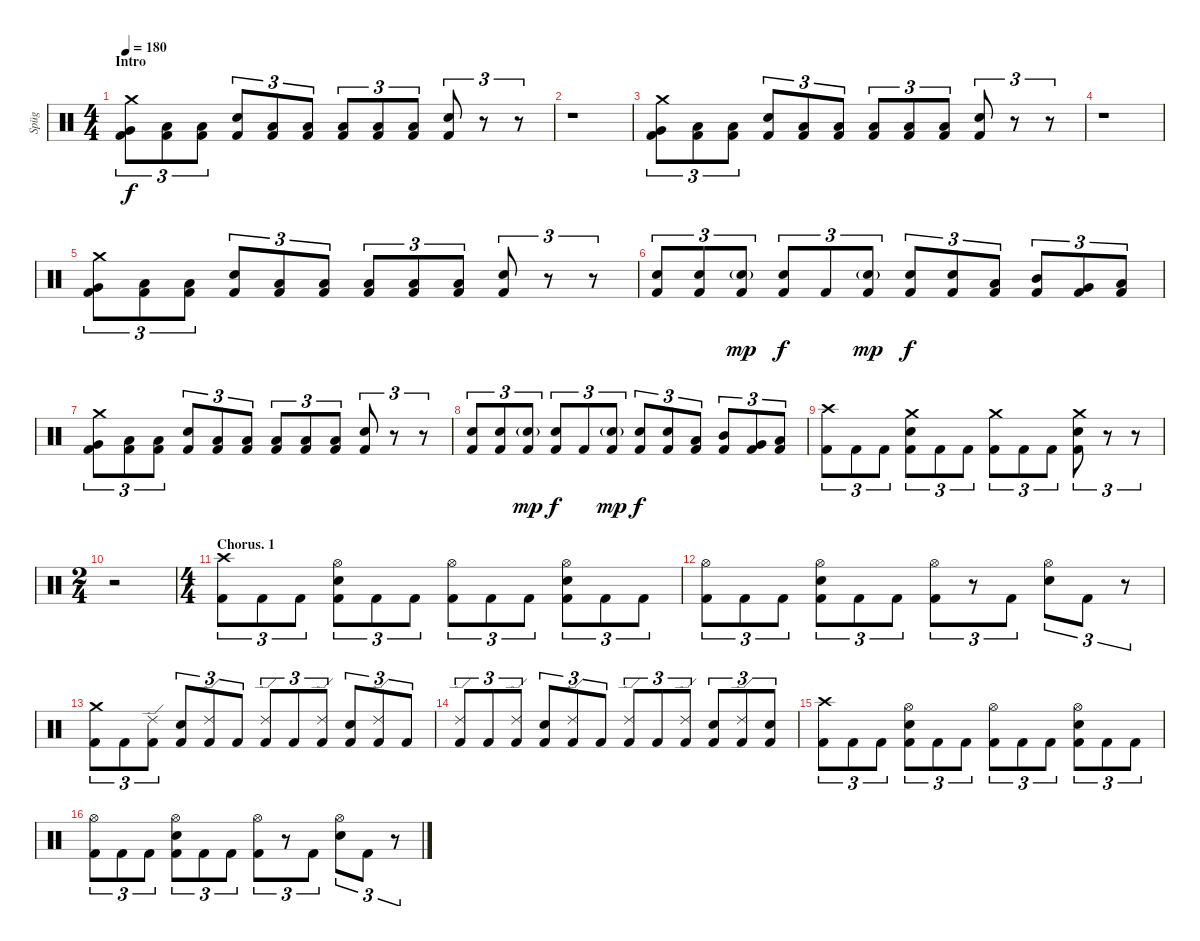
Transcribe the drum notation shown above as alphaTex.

\track ("Spüg" "Spüg") {instrument percussion}
\staff {score}
\articulation defaults
\ts (4 4)
\section ("" "Intro")
\tempo 180
\clef neutral
\ks c
("Crash medium (hit)" "Very Low Tom (hit)" "Kick (hit) 2").8{tu (3 2) dy f} ("Low Floor Tom (hit)" "Kick (hit) 2").8{tu (3 2)} ("Low Floor Tom (hit)" "Kick (hit) 2").8{tu (3 2)} ("Electric Snare (hit)" "Kick (hit) 2").8{tu (3 2)} ("Low Floor Tom (hit)" "Kick (hit) 2").8{tu (3 2)} ("Low Floor Tom (hit)" "Kick (hit) 2").8{tu (3 2)} ("Low Floor Tom (hit)" "Kick (hit) 2").8{tu (3 2)} ("Low Floor Tom (hit)" "Kick (hit) 2").8{tu (3 2)} ("Low Floor Tom (hit)" "Kick (hit) 2").8{tu (3 2)} ("Electric Snare (hit)" "Kick (hit) 2").8{tu (3 2)} r.8{tu (3 2)} r.8{tu (3 2)} |
r.1 |
("Crash medium (hit)" "Very Low Tom (hit)" "Kick (hit) 2").8{tu (3 2)} ("Low Floor Tom (hit)" "Kick (hit) 2").8{tu (3 2)} ("Low Floor Tom (hit)" "Kick (hit) 2").8{tu (3 2)} ("Electric Snare (hit)" "Kick (hit) 2").8{tu (3 2)} ("Low Floor Tom (hit)" "Kick (hit) 2").8{tu (3 2)} ("Low Floor Tom (hit)" "Kick (hit) 2").8{tu (3 2)} ("Low Floor Tom (hit)" "Kick (hit) 2").8{tu (3 2)} ("Low Floor Tom (hit)" "Kick (hit) 2").8{tu (3 2)} ("Low Floor Tom (hit)" "Kick (hit) 2").8{tu (3 2)} ("Electric Snare (hit)" "Kick (hit) 2").8{tu (3 2)} r.8{tu (3 2)} r.8{tu (3 2)} |
r.1 |
("Crash medium (hit)" "Very Low Tom (hit)" "Kick (hit) 2").8{tu (3 2)} ("Low Floor Tom (hit)" "Kick (hit) 2").8{tu (3 2)} ("Low Floor Tom (hit)" "Kick (hit) 2").8{tu (3 2)} ("Electric Snare (hit)" "Kick (hit) 2").8{tu (3 2)} ("Low Floor Tom (hit)" "Kick (hit) 2").8{tu (3 2)} ("Low Floor Tom (hit)" "Kick (hit) 2").8{tu (3 2)} ("Low Floor Tom (hit)" "Kick (hit) 2").8{tu (3 2)} ("Low Floor Tom (hit)" "Kick (hit) 2").8{tu (3 2)} ("Low Floor Tom (hit)" "Kick (hit) 2").8{tu (3 2)} ("Electric Snare (hit)" "Kick (hit) 2").8{tu (3 2)} r.8{tu (3 2)} r.8{tu (3 2)} |
("Electric Snare (hit)" "Kick (hit) 2").8{tu (3 2)} ("Electric Snare (hit)" "Kick (hit) 2").8{tu (3 2)} ("Electric Snare (hit)"{g} "Kick (hit) 2").8{tu (3 2) dy mp} ("Electric Snare (hit)" "Kick (hit) 2").8{tu (3 2) dy f} "Kick (hit) 2".8{tu (3 2)} ("Electric Snare (hit)"{g} "Kick (hit) 2").8{tu (3 2) dy mp} ("Electric Snare (hit)" "Kick (hit) 2").8{tu (3 2) dy f} ("Electric Snare (hit)" "Kick (hit) 2").8{tu (3 2)} ("Low Tom (hit)" "Kick (hit) 2").8{tu (3 2)} ("Mid Tom (hit)" "Kick (hit) 2").8{tu (3 2)} ("Very Low Tom (hit)" "Kick (hit) 2").8{tu (3 2)} ("Low Floor Tom (hit)" "Kick (hit) 2").8{tu (3 2)} |
("Crash medium (hit)" "Very Low Tom (hit)" "Kick (hit) 2").8{tu (3 2)} ("Low Floor Tom (hit)" "Kick (hit) 2").8{tu (3 2)} ("Low Floor Tom (hit)" "Kick (hit) 2").8{tu (3 2)} ("Electric Snare (hit)" "Kick (hit) 2").8{tu (3 2)} ("Low Floor Tom (hit)" "Kick (hit) 2").8{tu (3 2)} ("Low Floor Tom (hit)" "Kick (hit) 2").8{tu (3 2)} ("Low Floor Tom (hit)" "Kick (hit) 2").8{tu (3 2)} ("Low Floor Tom (hit)" "Kick (hit) 2").8{tu (3 2)} ("Low Floor Tom (hit)" "Kick (hit) 2").8{tu (3 2)} ("Electric Snare (hit)" "Kick (hit) 2").8{tu (3 2)} r.8{tu (3 2)} r.8{tu (3 2)} |
("Electric Snare (hit)" "Kick (hit) 2").8{tu (3 2)} ("Electric Snare (hit)" "Kick (hit) 2").8{tu (3 2)} ("Electric Snare (hit)"{g} "Kick (hit) 2").8{tu (3 2) dy mp} ("Electric Snare (hit)" "Kick (hit) 2").8{tu (3 2) dy f} "Kick (hit) 2".8{tu (3 2)} ("Electric Snare (hit)"{g} "Kick (hit) 2").8{tu (3 2) dy mp} ("Electric Snare (hit)" "Kick (hit) 2").8{tu (3 2) dy f} ("Electric Snare (hit)" "Kick (hit) 2").8{tu (3 2)} ("Low Tom (hit)" "Kick (hit) 2").8{tu (3 2)} ("Mid Tom (hit)" "Kick (hit) 2").8{tu (3 2)} ("Very Low Tom (hit)" "Kick (hit) 2").8{tu (3 2)} ("Low Floor Tom (hit)" "Kick (hit) 2").8{tu (3 2)} |
("Crash high (hit)" "Kick (hit) 2").8{tu (3 2)} "Kick (hit) 2".8{tu (3 2)} "Kick (hit) 2".8{tu (3 2)} ("Crash medium (hit)" "Electric Snare (hit)" "Kick (hit) 2").8{tu (3 2)} "Kick (hit) 2".8{tu (3 2)} "Kick (hit) 2".8{tu (3 2)} ("Crash medium (hit)" "Kick (hit) 2").8{tu (3 2)} "Kick (hit) 2".8{tu (3 2)} "Kick (hit) 2".8{tu (3 2)} ("Crash medium (hit)" "Electric Snare (hit)" "Kick (hit) 2").8{tu (3 2)} r.8{tu (3 2)} r.8{tu (3 2)} |
\ts (2 4)
r.2 |
\ts (4 4)
\section ("" "Chorus. 1")
("Crash high (hit)" "Kick (hit) 2").8{tu (3 2)} "Kick (hit) 2".8{tu (3 2)} "Kick (hit) 2".8{tu (3 2)} ("Hi-Hat (open)" "Electric Snare (hit)" "Kick (hit) 2").8{tu (3 2)} "Kick (hit) 2".8{tu (3 2)} "Kick (hit) 2".8{tu (3 2)} ("Hi-Hat (open)" "Kick (hit) 2").8{tu (3 2)} "Kick (hit) 2".8{tu (3 2)} "Kick (hit) 2".8{tu (3 2)} ("Hi-Hat (open)" "Electric Snare (hit)" "Kick (hit) 2").8{tu (3 2)} "Kick (hit) 2".8{tu (3 2)} "Kick (hit) 2".8{tu (3 2)} |
("Hi-Hat (open)" "Kick (hit) 2").8{tu (3 2)} "Kick (hit) 2".8{tu (3 2)} "Kick (hit) 2".8{tu (3 2)} ("Hi-Hat (open)" "Electric Snare (hit)" "Kick (hit) 2").8{tu (3 2)} "Kick (hit) 2".8{tu (3 2)} "Kick (hit) 2".8{tu (3 2)} ("Hi-Hat (open)" "Kick (hit) 2").8{tu (3 2)} r.8{tu (3 2)} "Kick (hit) 2".8{tu (3 2)} ("Hi-Hat (open)" "Electric Snare (hit)").8{tu (3 2)} "Kick (hit) 2".8{tu (3 2)} r.8{tu (3 2)} |
("Crash medium (hit)" "Kick (hit) 2").8{tu (3 2)} "Kick (hit) 2".8{tu (3 2)} ("Ride (edge) 2" "Kick (hit) 2").8{tu (3 2)} ("Electric Snare (hit)" "Kick (hit) 2").8{tu (3 2)} ("Ride (edge) 2" "Kick (hit) 2").8{tu (3 2)} "Kick (hit) 2".8{tu (3 2)} ("Ride (edge) 2" "Kick (hit) 2").8{tu (3 2)} "Kick (hit) 2".8{tu (3 2)} ("Ride (edge) 2" "Kick (hit) 2").8{tu (3 2)} ("Electric Snare (hit)" "Kick (hit) 2").8{tu (3 2)} ("Ride (edge) 2" "Kick (hit) 2").8{tu (3 2)} "Kick (hit) 2".8{tu (3 2)} |
("Ride (edge) 2" "Kick (hit) 2").8{tu (3 2)} "Kick (hit) 2".8{tu (3 2)} ("Ride (edge) 2" "Kick (hit) 2").8{tu (3 2)} ("Electric Snare (hit)" "Kick (hit) 2").8{tu (3 2)} ("Ride (edge) 2" "Kick (hit) 2").8{tu (3 2)} "Kick (hit) 2".8{tu (3 2)} ("Ride (edge) 2" "Kick (hit) 2").8{tu (3 2)} "Kick (hit) 2".8{tu (3 2)} ("Ride (edge) 2" "Kick (hit) 2").8{tu (3 2)} ("Electric Snare (hit)" "Kick (hit) 2").8{tu (3 2)} ("Ride (edge) 2" "Kick (hit) 2").8{tu (3 2)} ("Electric Snare (hit)" "Kick (hit) 2").8{tu (3 2)} |
("Crash high (hit)" "Kick (hit) 2").8{tu (3 2)} "Kick (hit) 2".8{tu (3 2)} "Kick (hit) 2".8{tu (3 2)} ("Hi-Hat (open)" "Electric Snare (hit)" "Kick (hit) 2").8{tu (3 2)} "Kick (hit) 2".8{tu (3 2)} "Kick (hit) 2".8{tu (3 2)} ("Hi-Hat (open)" "Kick (hit) 2").8{tu (3 2)} "Kick (hit) 2".8{tu (3 2)} "Kick (hit) 2".8{tu (3 2)} ("Hi-Hat (open)" "Electric Snare (hit)" "Kick (hit) 2").8{tu (3 2)} "Kick (hit) 2".8{tu (3 2)} "Kick (hit) 2".8{tu (3 2)} |
("Hi-Hat (open)" "Kick (hit) 2").8{tu (3 2)} "Kick (hit) 2".8{tu (3 2)} "Kick (hit) 2".8{tu (3 2)} ("Hi-Hat (open)" "Electric Snare (hit)" "Kick (hit) 2").8{tu (3 2)} "Kick (hit) 2".8{tu (3 2)} "Kick (hit) 2".8{tu (3 2)} ("Hi-Hat (open)" "Kick (hit) 2").8{tu (3 2)} r.8{tu (3 2)} "Kick (hit) 2".8{tu (3 2)} ("Hi-Hat (open)" "Electric Snare (hit)").8{tu (3 2)} "Kick (hit) 2".8{tu (3 2)} r.8{tu (3 2)}
